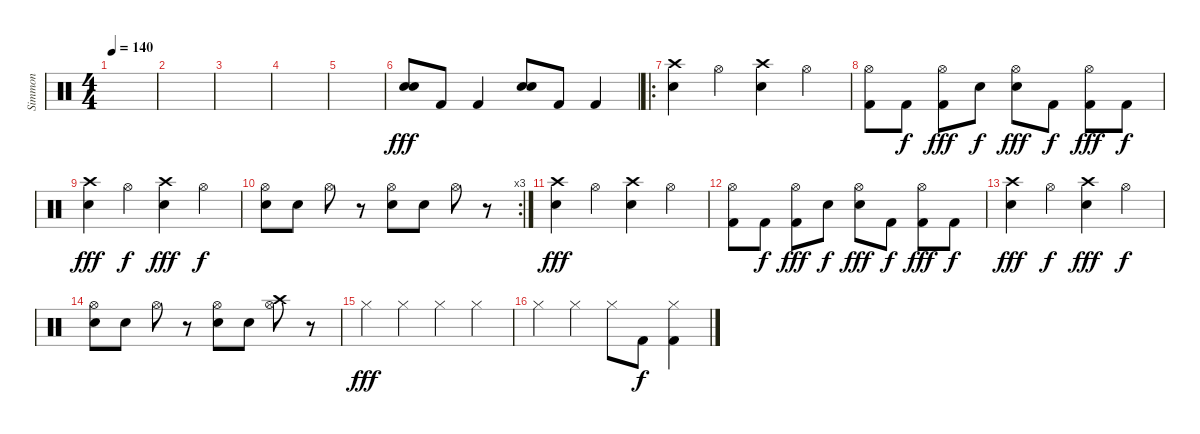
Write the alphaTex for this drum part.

\track ("Simmon" "Simmon") {instrument percussion}
\staff {score}
\articulation defaults
\ts (4 4)
\tempo 140
\clef neutral
\ks c
|
|
|
|
|
("Electric Snare (hit)" "Snare (hit) 2").8{dy fff} "Kick (hit) 2".8 "Kick (hit) 2".4 ("Electric Snare (hit)" "Snare (hit) 2").8 "Kick (hit) 2".8 "Kick (hit) 2".4 |
\ro
("Crash high (hit)" "Electric Snare (hit)").4 "Hi-Hat (open)".4 ("Crash high (hit)" "Electric Snare (hit)").4 "Hi-Hat (open)".4 |
("Kick (hit) 2" "Hi-Hat (open)").8 "Kick (hit) 2".8{dy f} ("Kick (hit) 2" "Hi-Hat (open)").8{dy fff} "Electric Snare (hit)".8{dy f} ("Electric Snare (hit)" "Hi-Hat (open)").8{dy fff} "Kick (hit) 2".8{dy f} ("Kick (hit) 2" "Hi-Hat (open)").8{dy fff} "Kick (hit) 2".8{dy f} |
("Crash high (hit)" "Electric Snare (hit)").4{dy fff} "Hi-Hat (open)".4{dy f} ("Crash high (hit)" "Electric Snare (hit)").4{dy fff} "Hi-Hat (open)".4{dy f} |
\rc 3
("Electric Snare (hit)" "Hi-Hat (open)").8 "Electric Snare (hit)".8 "Hi-Hat (open)".8 r.8 ("Electric Snare (hit)" "Hi-Hat (open)").8 "Electric Snare (hit)".8 "Hi-Hat (open)".8 r.8 |
("Crash high (hit)" "Electric Snare (hit)").4{dy fff} "Hi-Hat (open)".4 ("Crash high (hit)" "Electric Snare (hit)").4 "Hi-Hat (open)".4 |
("Kick (hit) 2" "Hi-Hat (open)").8 "Kick (hit) 2".8{dy f} ("Kick (hit) 2" "Hi-Hat (open)").8{dy fff} "Electric Snare (hit)".8{dy f} ("Electric Snare (hit)" "Hi-Hat (open)").8{dy fff} "Kick (hit) 2".8{dy f} ("Kick (hit) 2" "Hi-Hat (open)").8{dy fff} "Kick (hit) 2".8{dy f} |
("Crash high (hit)" "Electric Snare (hit)").4{dy fff} "Hi-Hat (open)".4{dy f} ("Crash high (hit)" "Electric Snare (hit)").4{dy fff} "Hi-Hat (open)".4{dy f} |
("Electric Snare (hit)" "Hi-Hat (open)").8 "Electric Snare (hit)".8 "Hi-Hat (open)".8 r.8 ("Electric Snare (hit)" "Hi-Hat (open)").8 "Electric Snare (hit)".8 ("Crash high (hit)" "Hi-Hat (open)").8 r.8 |
"Hi-Hat (closed)".4{dy fff} "Hi-Hat (closed)".4 "Hi-Hat (closed)".4 "Hi-Hat (closed)".4 |
"Hi-Hat (closed)".4 "Hi-Hat (closed)".4 "Hi-Hat (closed)".8 "Kick (hit) 2".8{dy f} ("Kick (hit) 2" "Hi-Hat (closed)").4
